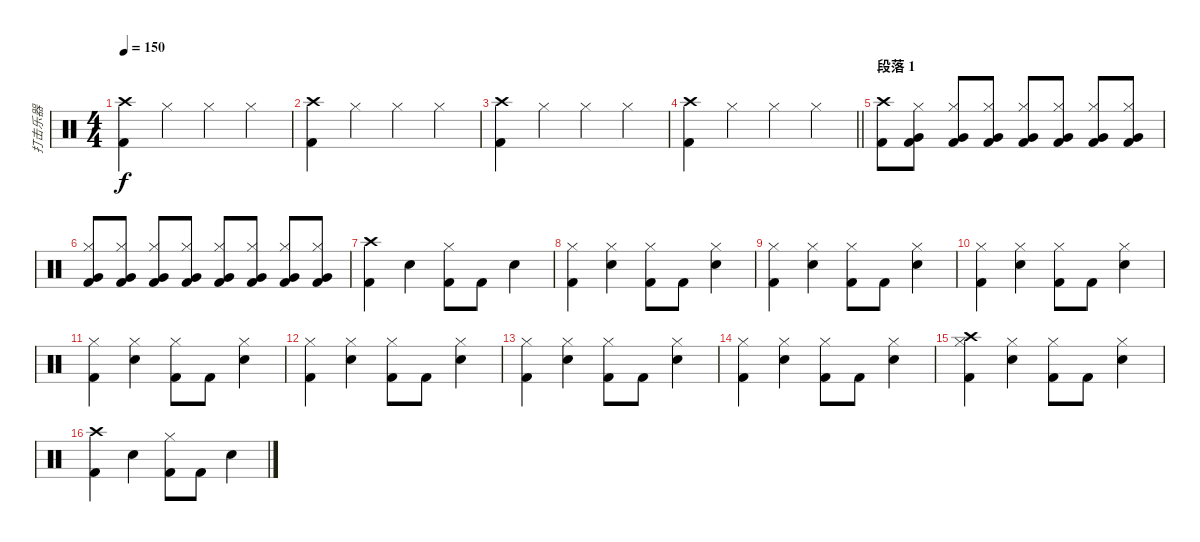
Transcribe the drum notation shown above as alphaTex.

\track ("打击乐器" "打击乐器") {instrument percussion}
\staff {score}
\articulation defaults
\ts (4 4)
\tempo 150
\clef neutral
\ks c
("Kick (hit) 2" "Crash high (hit)").4{dy f} "Hi-Hat (closed)".4 "Hi-Hat (closed)".4 "Hi-Hat (closed)".4 |
("Kick (hit) 2" "Crash high (hit)").4 "Hi-Hat (closed)".4 "Hi-Hat (closed)".4 "Hi-Hat (closed)".4 |
("Kick (hit) 2" "Crash high (hit)").4 "Hi-Hat (closed)".4 "Hi-Hat (closed)".4 "Hi-Hat (closed)".4 |
\barLineRight lightlight
("Kick (hit) 2" "Crash high (hit)").4 "Hi-Hat (closed)".4 "Hi-Hat (closed)".4 "Hi-Hat (closed)".4 |
\section ("" "段落 1")
("Kick (hit) 2" "Crash high (hit)").8 ("Kick (hit) 2" "Hi-Hat (closed)" "Very Low Tom (hit)").8 ("Kick (hit) 2" "Hi-Hat (closed)" "Very Low Tom (hit)").8 ("Kick (hit) 2" "Hi-Hat (closed)" "Very Low Tom (hit)").8 ("Kick (hit) 2" "Hi-Hat (closed)" "Very Low Tom (hit)").8 ("Kick (hit) 2" "Hi-Hat (closed)" "Very Low Tom (hit)").8 ("Kick (hit) 2" "Hi-Hat (closed)" "Very Low Tom (hit)").8 ("Kick (hit) 2" "Hi-Hat (closed)" "Very Low Tom (hit)").8 |
("Kick (hit) 2" "Hi-Hat (closed)" "Very Low Tom (hit)").8 ("Kick (hit) 2" "Hi-Hat (closed)" "Very Low Tom (hit)").8 ("Kick (hit) 2" "Hi-Hat (closed)" "Very Low Tom (hit)").8 ("Kick (hit) 2" "Hi-Hat (closed)" "Very Low Tom (hit)").8 ("Kick (hit) 2" "Hi-Hat (closed)" "Very Low Tom (hit)").8 ("Kick (hit) 2" "Hi-Hat (closed)" "Very Low Tom (hit)").8 ("Kick (hit) 2" "Hi-Hat (closed)" "Very Low Tom (hit)").8 ("Kick (hit) 2" "Hi-Hat (closed)" "Very Low Tom (hit)").8 |
("Kick (hit) 2" "Crash high (hit)").4 "Snare (hit) 2".4 ("Kick (hit) 2" "Hi-Hat (closed)").8 "Kick (hit) 2".8 "Snare (hit) 2".4 |
("Kick (hit) 2" "Hi-Hat (closed)").4 ("Snare (hit) 2" "Hi-Hat (closed)").4 ("Kick (hit) 2" "Hi-Hat (closed)").8 "Kick (hit) 2".8 ("Snare (hit) 2" "Hi-Hat (closed)").4 |
("Kick (hit) 2" "Hi-Hat (closed)").4 ("Snare (hit) 2" "Hi-Hat (closed)").4 ("Kick (hit) 2" "Hi-Hat (closed)").8 "Kick (hit) 2".8 ("Snare (hit) 2" "Hi-Hat (closed)").4 |
("Kick (hit) 2" "Hi-Hat (closed)").4 ("Snare (hit) 2" "Hi-Hat (closed)").4 ("Kick (hit) 2" "Hi-Hat (closed)").8 "Kick (hit) 2".8 ("Snare (hit) 2" "Hi-Hat (closed)").4 |
("Kick (hit) 2" "Hi-Hat (closed)").4 ("Snare (hit) 2" "Hi-Hat (closed)").4 ("Kick (hit) 2" "Hi-Hat (closed)").8 "Kick (hit) 2".8 ("Snare (hit) 2" "Hi-Hat (closed)").4 |
("Kick (hit) 2" "Hi-Hat (closed)").4 ("Snare (hit) 2" "Hi-Hat (closed)").4 ("Kick (hit) 2" "Hi-Hat (closed)").8 "Kick (hit) 2".8 ("Snare (hit) 2" "Hi-Hat (closed)").4 |
("Kick (hit) 2" "Hi-Hat (closed)").4 ("Snare (hit) 2" "Hi-Hat (closed)").4 ("Kick (hit) 2" "Hi-Hat (closed)").8 "Kick (hit) 2".8 ("Snare (hit) 2" "Hi-Hat (closed)").4 |
("Kick (hit) 2" "Hi-Hat (closed)").4 ("Snare (hit) 2" "Hi-Hat (closed)").4 ("Kick (hit) 2" "Hi-Hat (closed)").8 "Kick (hit) 2".8 ("Snare (hit) 2" "Hi-Hat (closed)").4 |
("Kick (hit) 2" "Crash high (hit)" "Hi-Hat (closed)").4 ("Snare (hit) 2" "Hi-Hat (closed)").4 ("Kick (hit) 2" "Hi-Hat (closed)").8 "Kick (hit) 2".8 ("Snare (hit) 2" "Hi-Hat (closed)").4 |
("Kick (hit) 2" "Crash high (hit)").4 "Snare (hit) 2".4 ("Kick (hit) 2" "Hi-Hat (closed)").8 "Kick (hit) 2".8 "Snare (hit) 2".4
